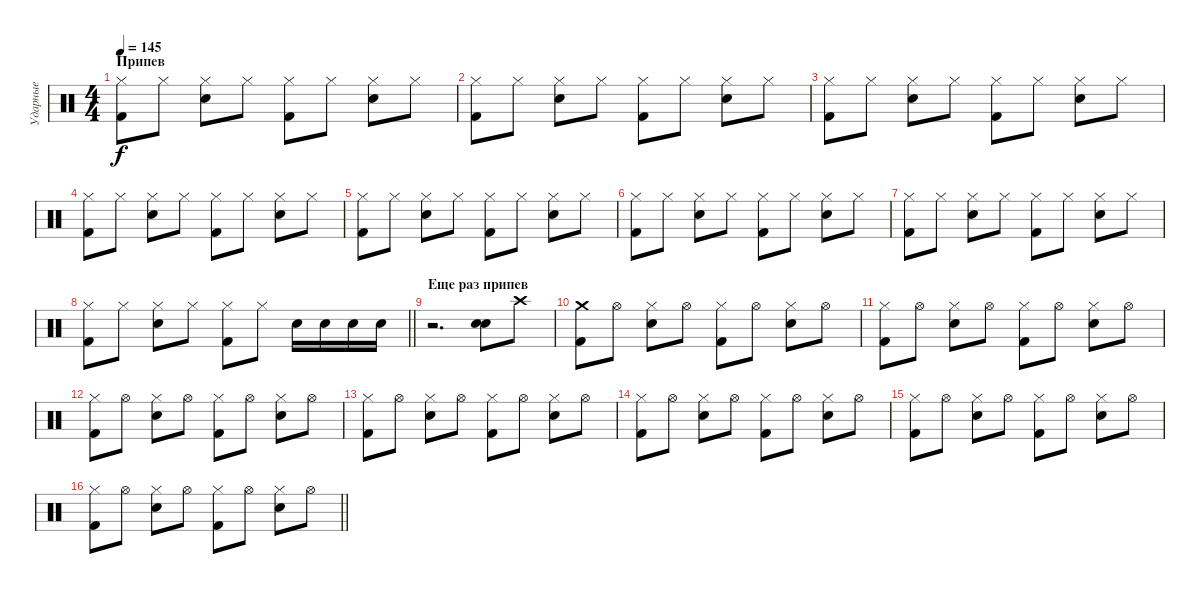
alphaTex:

\track ("Ударные" "Ударные") {instrument percussion}
\staff {score}
\articulation defaults
\ts (4 4)
\section ("" "Припев")
\tempo 145
\clef neutral
\ks c
("Hi-Hat (closed)" "Kick (hit) 2").8{dy f} "Hi-Hat (closed)".8 ("Hi-Hat (closed)" "Snare (hit) 2").8 "Hi-Hat (closed)".8 ("Hi-Hat (closed)" "Kick (hit) 2").8 "Hi-Hat (closed)".8 ("Hi-Hat (closed)" "Snare (hit) 2").8 "Hi-Hat (closed)".8 |
("Hi-Hat (closed)" "Kick (hit) 2").8 "Hi-Hat (closed)".8 ("Hi-Hat (closed)" "Snare (hit) 2").8 "Hi-Hat (closed)".8 ("Hi-Hat (closed)" "Kick (hit) 2").8 "Hi-Hat (closed)".8 ("Hi-Hat (closed)" "Snare (hit) 2").8 "Hi-Hat (closed)".8 |
("Hi-Hat (closed)" "Kick (hit) 2").8 "Hi-Hat (closed)".8 ("Hi-Hat (closed)" "Snare (hit) 2").8 "Hi-Hat (closed)".8 ("Hi-Hat (closed)" "Kick (hit) 2").8 "Hi-Hat (closed)".8 ("Hi-Hat (closed)" "Snare (hit) 2").8 "Hi-Hat (closed)".8 |
("Hi-Hat (closed)" "Kick (hit) 2").8 "Hi-Hat (closed)".8 ("Hi-Hat (closed)" "Snare (hit) 2").8 "Hi-Hat (closed)".8 ("Hi-Hat (closed)" "Kick (hit) 2").8 "Hi-Hat (closed)".8 ("Hi-Hat (closed)" "Snare (hit) 2").8 "Hi-Hat (closed)".8 |
("Hi-Hat (closed)" "Kick (hit) 2").8 "Hi-Hat (closed)".8 ("Hi-Hat (closed)" "Snare (hit) 2").8 "Hi-Hat (closed)".8 ("Hi-Hat (closed)" "Kick (hit) 2").8 "Hi-Hat (closed)".8 ("Hi-Hat (closed)" "Snare (hit) 2").8 "Hi-Hat (closed)".8 |
("Hi-Hat (closed)" "Kick (hit) 2").8 "Hi-Hat (closed)".8 ("Hi-Hat (closed)" "Snare (hit) 2").8 "Hi-Hat (closed)".8 ("Hi-Hat (closed)" "Kick (hit) 2").8 "Hi-Hat (closed)".8 ("Hi-Hat (closed)" "Snare (hit) 2").8 "Hi-Hat (closed)".8 |
("Hi-Hat (closed)" "Kick (hit) 2").8 "Hi-Hat (closed)".8 ("Hi-Hat (closed)" "Snare (hit) 2").8 "Hi-Hat (closed)".8 ("Hi-Hat (closed)" "Kick (hit) 2").8 "Hi-Hat (closed)".8 ("Hi-Hat (closed)" "Snare (hit) 2").8 "Hi-Hat (closed)".8 |
\barLineRight lightlight
("Hi-Hat (closed)" "Kick (hit) 2").8 "Hi-Hat (closed)".8 ("Hi-Hat (closed)" "Snare (hit) 2").8 "Hi-Hat (closed)".8 ("Hi-Hat (closed)" "Kick (hit) 2").8 "Hi-Hat (closed)".8 "Snare (hit) 2".16 "Snare (hit) 2".16 "Snare (hit) 2".16 "Snare (hit) 2".16 |
\section ("" "Еще раз припев")
r.2{d} ("Snare (hit) 2" "Snare (hit) 2").8{bd 240} "Crash high (hit)".8 |
("Kick (hit) 2" "Crash medium (hit)").8 "Hi-Hat (open)".8 ("Hi-Hat (closed)" "Snare (hit) 2").8 "Hi-Hat (open)".8 ("Hi-Hat (closed)" "Kick (hit) 2").8 "Hi-Hat (open)".8 ("Hi-Hat (closed)" "Snare (hit) 2").8 "Hi-Hat (open)".8 |
("Hi-Hat (closed)" "Kick (hit) 2").8 "Hi-Hat (open)".8 ("Hi-Hat (closed)" "Snare (hit) 2").8 "Hi-Hat (open)".8 ("Hi-Hat (closed)" "Kick (hit) 2").8 "Hi-Hat (open)".8 ("Hi-Hat (closed)" "Snare (hit) 2").8 "Hi-Hat (open)".8 |
("Hi-Hat (closed)" "Kick (hit) 2").8 "Hi-Hat (open)".8 ("Hi-Hat (closed)" "Snare (hit) 2").8 "Hi-Hat (open)".8 ("Hi-Hat (closed)" "Kick (hit) 2").8 "Hi-Hat (open)".8 ("Hi-Hat (closed)" "Snare (hit) 2").8 "Hi-Hat (open)".8 |
("Hi-Hat (closed)" "Kick (hit) 2").8 "Hi-Hat (open)".8 ("Hi-Hat (closed)" "Snare (hit) 2").8 "Hi-Hat (open)".8 ("Hi-Hat (closed)" "Kick (hit) 2").8 "Hi-Hat (open)".8 ("Hi-Hat (closed)" "Snare (hit) 2").8 "Hi-Hat (open)".8 |
("Hi-Hat (closed)" "Kick (hit) 2").8 "Hi-Hat (open)".8 ("Hi-Hat (closed)" "Snare (hit) 2").8 "Hi-Hat (open)".8 ("Hi-Hat (closed)" "Kick (hit) 2").8 "Hi-Hat (open)".8 ("Hi-Hat (closed)" "Snare (hit) 2").8 "Hi-Hat (open)".8 |
("Hi-Hat (closed)" "Kick (hit) 2").8 "Hi-Hat (open)".8 ("Hi-Hat (closed)" "Snare (hit) 2").8 "Hi-Hat (open)".8 ("Hi-Hat (closed)" "Kick (hit) 2").8 "Hi-Hat (open)".8 ("Hi-Hat (closed)" "Snare (hit) 2").8 "Hi-Hat (open)".8 |
\barLineRight lightlight
("Hi-Hat (closed)" "Kick (hit) 2").8 "Hi-Hat (open)".8 ("Hi-Hat (closed)" "Snare (hit) 2").8 "Hi-Hat (open)".8 ("Hi-Hat (closed)" "Kick (hit) 2").8 "Hi-Hat (open)".8 ("Hi-Hat (closed)" "Snare (hit) 2").8 "Hi-Hat (open)".8
